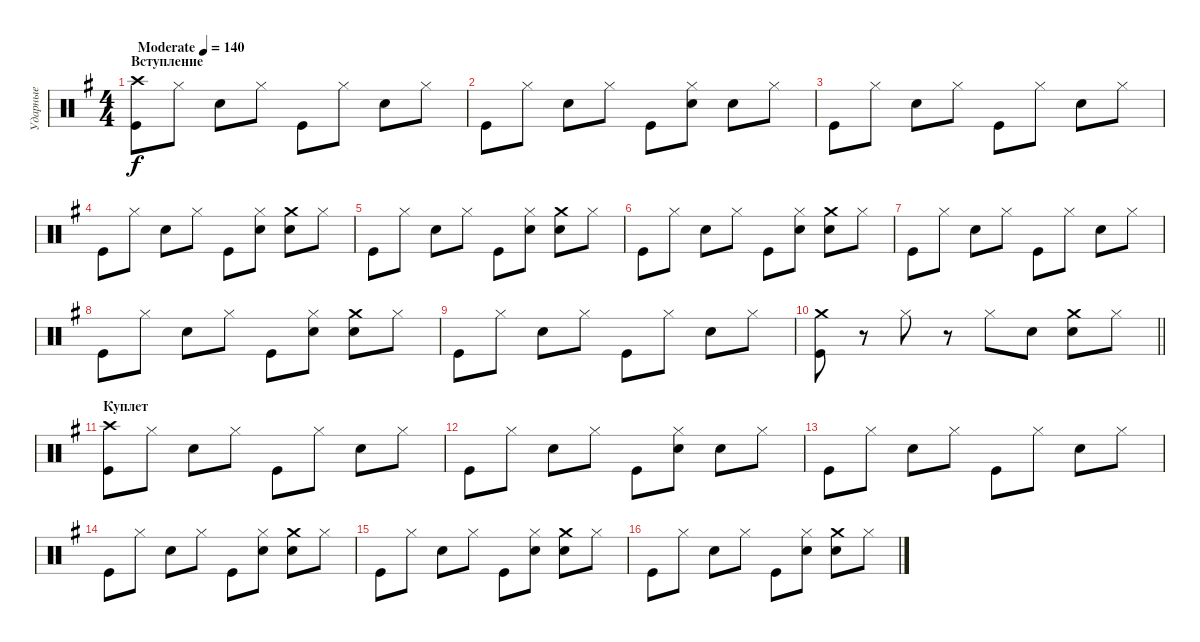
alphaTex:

\track ("Ударные" "Ударные") {instrument percussion}
\staff {score}
\articulation defaults
\ts (4 4)
\section ("" "Вступление")
\tempo (140 "Moderate")
\clef neutral
\ks eminor
("Crash high (hit)" "Kick (hit)").8{dy f} "Hi-Hat (closed)".8 "Snare (hit) 2".8 "Hi-Hat (closed)".8 "Kick (hit)".8 "Hi-Hat (closed)".8 "Snare (hit) 2".8 "Hi-Hat (closed)".8 |
"Kick (hit)".8 "Hi-Hat (closed)".8 "Snare (hit) 2".8 "Hi-Hat (closed)".8 "Kick (hit)".8 ("Hi-Hat (closed)" "Snare (hit) 2").8 "Snare (hit) 2".8 "Hi-Hat (closed)".8 |
"Kick (hit)".8 "Hi-Hat (closed)".8 "Snare (hit) 2".8 "Hi-Hat (closed)".8 "Kick (hit)".8 "Hi-Hat (closed)".8 "Snare (hit) 2".8 "Hi-Hat (closed)".8 |
"Kick (hit)".8 "Hi-Hat (closed)".8 "Snare (hit) 2".8 "Hi-Hat (closed)".8 "Kick (hit)".8 ("Hi-Hat (closed)" "Snare (hit) 2").8 ("Crash medium (hit)" "Snare (hit) 2").8 "Hi-Hat (closed)".8 |
"Kick (hit)".8 "Hi-Hat (closed)".8 "Snare (hit) 2".8 "Hi-Hat (closed)".8 "Kick (hit)".8 ("Hi-Hat (closed)" "Snare (hit) 2").8 ("Crash medium (hit)" "Snare (hit) 2").8 "Hi-Hat (closed)".8 |
"Kick (hit)".8 "Hi-Hat (closed)".8 "Snare (hit) 2".8 "Hi-Hat (closed)".8 "Kick (hit)".8 ("Hi-Hat (closed)" "Snare (hit) 2").8 ("Crash medium (hit)" "Snare (hit) 2").8 "Hi-Hat (closed)".8 |
"Kick (hit)".8 "Hi-Hat (closed)".8 "Snare (hit) 2".8 "Hi-Hat (closed)".8 "Kick (hit)".8 "Hi-Hat (closed)".8 "Snare (hit) 2".8 "Hi-Hat (closed)".8 |
"Kick (hit)".8 "Hi-Hat (closed)".8 "Snare (hit) 2".8 "Hi-Hat (closed)".8 "Kick (hit)".8 ("Hi-Hat (closed)" "Snare (hit) 2").8 ("Crash medium (hit)" "Snare (hit) 2").8 "Hi-Hat (closed)".8 |
"Kick (hit)".8 "Hi-Hat (closed)".8 "Snare (hit) 2".8 "Hi-Hat (closed)".8 "Kick (hit)".8 "Hi-Hat (closed)".8 "Snare (hit) 2".8 "Hi-Hat (closed)".8 |
\barLineRight lightlight
("Crash medium (hit)" "Kick (hit)").8 r.8 "Hi-Hat (closed)".8 r.8 "Hi-Hat (closed)".8 "Snare (hit) 2".8 ("Crash medium (hit)" "Snare (hit) 2").8 "Hi-Hat (closed)".8 |
\section ("" "Куплет")
("Crash high (hit)" "Kick (hit)").8 "Hi-Hat (closed)".8 "Snare (hit) 2".8 "Hi-Hat (closed)".8 "Kick (hit)".8 "Hi-Hat (closed)".8 "Snare (hit) 2".8 "Hi-Hat (closed)".8 |
"Kick (hit)".8 "Hi-Hat (closed)".8 "Snare (hit) 2".8 "Hi-Hat (closed)".8 "Kick (hit)".8 ("Hi-Hat (closed)" "Snare (hit) 2").8 "Snare (hit) 2".8 "Hi-Hat (closed)".8 |
"Kick (hit)".8 "Hi-Hat (closed)".8 "Snare (hit) 2".8 "Hi-Hat (closed)".8 "Kick (hit)".8 "Hi-Hat (closed)".8 "Snare (hit) 2".8 "Hi-Hat (closed)".8 |
"Kick (hit)".8 "Hi-Hat (closed)".8 "Snare (hit) 2".8 "Hi-Hat (closed)".8 "Kick (hit)".8 ("Hi-Hat (closed)" "Snare (hit) 2").8 ("Crash medium (hit)" "Snare (hit) 2").8 "Hi-Hat (closed)".8 |
"Kick (hit)".8 "Hi-Hat (closed)".8 "Snare (hit) 2".8 "Hi-Hat (closed)".8 "Kick (hit)".8 ("Hi-Hat (closed)" "Snare (hit) 2").8 ("Crash medium (hit)" "Snare (hit) 2").8 "Hi-Hat (closed)".8 |
"Kick (hit)".8 "Hi-Hat (closed)".8 "Snare (hit) 2".8 "Hi-Hat (closed)".8 "Kick (hit)".8 ("Hi-Hat (closed)" "Snare (hit) 2").8 ("Crash medium (hit)" "Snare (hit) 2").8 "Hi-Hat (closed)".8
